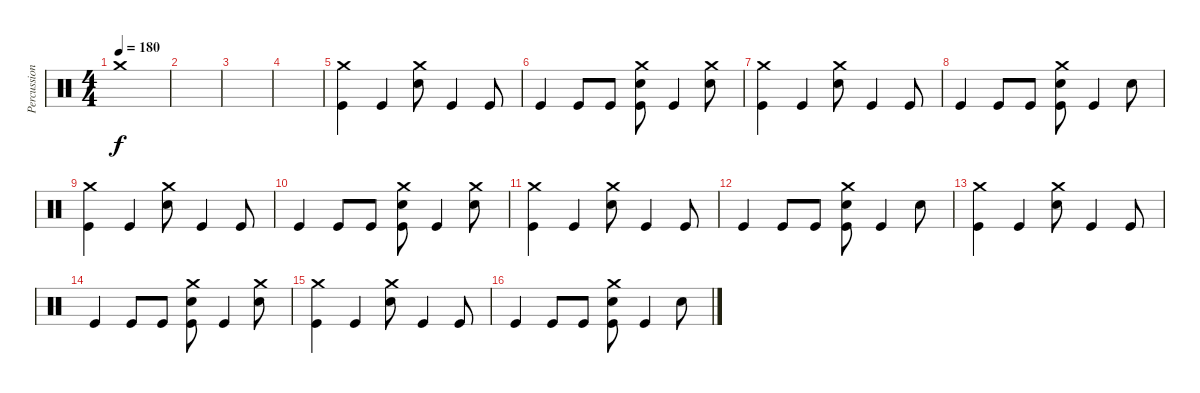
\track ("Percussion" "Percussion") {instrument percussion}
\staff {score}
\articulation defaults
\ts (4 4)
\tempo 180
\clef neutral
\ks c "Crash medium (hit)".1{dy f}
|
|
|
|
("Crash medium (hit)" "Kick (hit)").4 "Kick (hit)".4 ("Crash medium (hit)" "Electric Snare (hit)").8 "Kick (hit)".4 "Kick (hit)".8 |
"Kick (hit)".4 "Kick (hit)".8 "Kick (hit)".8 ("Crash medium (hit)" "Electric Snare (hit)" "Kick (hit)").8 "Kick (hit)".4 ("Crash medium (hit)" "Electric Snare (hit)").8 |
("Crash medium (hit)" "Kick (hit)").4 "Kick (hit)".4 ("Crash medium (hit)" "Electric Snare (hit)").8 "Kick (hit)".4 "Kick (hit)".8 |
"Kick (hit)".4 "Kick (hit)".8 "Kick (hit)".8 ("Crash medium (hit)" "Electric Snare (hit)" "Kick (hit)").8 "Kick (hit)".4 "Electric Snare (hit)".8 |
("Crash medium (hit)" "Kick (hit)").4 "Kick (hit)".4 ("Crash medium (hit)" "Electric Snare (hit)").8 "Kick (hit)".4 "Kick (hit)".8 |
"Kick (hit)".4 "Kick (hit)".8 "Kick (hit)".8 ("Crash medium (hit)" "Electric Snare (hit)" "Kick (hit)").8 "Kick (hit)".4 ("Crash medium (hit)" "Electric Snare (hit)").8 |
("Crash medium (hit)" "Kick (hit)").4 "Kick (hit)".4 ("Crash medium (hit)" "Electric Snare (hit)").8 "Kick (hit)".4 "Kick (hit)".8 |
"Kick (hit)".4 "Kick (hit)".8 "Kick (hit)".8 ("Crash medium (hit)" "Electric Snare (hit)" "Kick (hit)").8 "Kick (hit)".4 "Electric Snare (hit)".8 |
("Crash medium (hit)" "Kick (hit)").4 "Kick (hit)".4 ("Crash medium (hit)" "Electric Snare (hit)").8 "Kick (hit)".4 "Kick (hit)".8 |
"Kick (hit)".4 "Kick (hit)".8 "Kick (hit)".8 ("Crash medium (hit)" "Electric Snare (hit)" "Kick (hit)").8 "Kick (hit)".4 ("Crash medium (hit)" "Electric Snare (hit)").8 |
("Crash medium (hit)" "Kick (hit)").4 "Kick (hit)".4 ("Crash medium (hit)" "Electric Snare (hit)").8 "Kick (hit)".4 "Kick (hit)".8 |
"Kick (hit)".4 "Kick (hit)".8 "Kick (hit)".8 ("Crash medium (hit)" "Electric Snare (hit)" "Kick (hit)").8 "Kick (hit)".4 "Electric Snare (hit)".8
